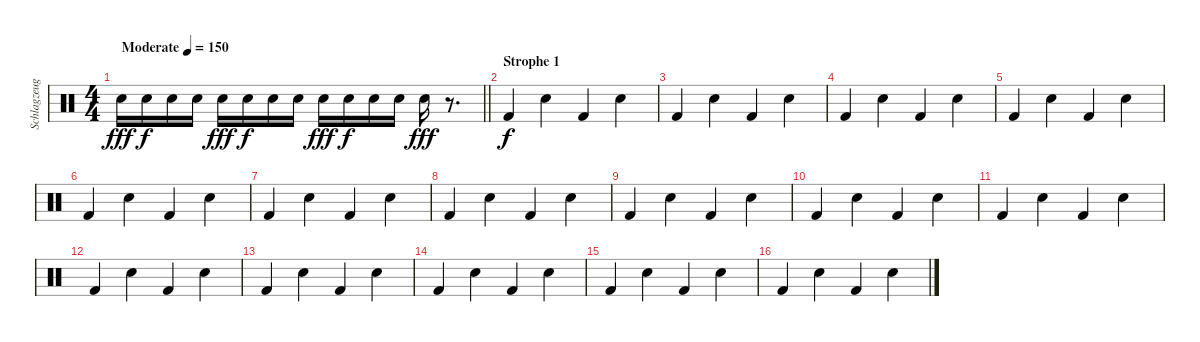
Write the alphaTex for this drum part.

\track ("Schlagzeug" "Schlagzeug") {instrument percussion}
\staff {score}
\articulation defaults
\ts (4 4)
\tempo (150 "Moderate")
\clef neutral
\barLineRight lightlight
\ks c "Electric Snare (hit)".16{dy fff} "Electric Snare (hit)".16{dy f} "Electric Snare (hit)".16 "Electric Snare (hit)".16 "Electric Snare (hit)".16{dy fff} "Electric Snare (hit)".16{dy f} "Electric Snare (hit)".16 "Electric Snare (hit)".16 "Electric Snare (hit)".16{dy fff} "Electric Snare (hit)".16{dy f} "Electric Snare (hit)".16 "Electric Snare (hit)".16 "Electric Snare (hit)".16{dy fff}
r.8{d} |
\section ("" "Strophe 1")
"Kick (hit) 2".4{dy f} "Electric Snare (hit)".4 "Kick (hit) 2".4 "Electric Snare (hit)".4 |
"Kick (hit) 2".4 "Electric Snare (hit)".4 "Kick (hit) 2".4 "Electric Snare (hit)".4 |
"Kick (hit) 2".4 "Electric Snare (hit)".4 "Kick (hit) 2".4 "Electric Snare (hit)".4 |
"Kick (hit) 2".4 "Electric Snare (hit)".4 "Kick (hit) 2".4 "Electric Snare (hit)".4 |
"Kick (hit) 2".4 "Electric Snare (hit)".4 "Kick (hit) 2".4 "Electric Snare (hit)".4 |
"Kick (hit) 2".4 "Electric Snare (hit)".4 "Kick (hit) 2".4 "Electric Snare (hit)".4 |
"Kick (hit) 2".4 "Electric Snare (hit)".4 "Kick (hit) 2".4 "Electric Snare (hit)".4 |
"Kick (hit) 2".4 "Electric Snare (hit)".4 "Kick (hit) 2".4 "Electric Snare (hit)".4 |
"Kick (hit) 2".4 "Electric Snare (hit)".4 "Kick (hit) 2".4 "Electric Snare (hit)".4 |
"Kick (hit) 2".4 "Electric Snare (hit)".4 "Kick (hit) 2".4 "Electric Snare (hit)".4 |
"Kick (hit) 2".4 "Electric Snare (hit)".4 "Kick (hit) 2".4 "Electric Snare (hit)".4 |
"Kick (hit) 2".4 "Electric Snare (hit)".4 "Kick (hit) 2".4 "Electric Snare (hit)".4 |
"Kick (hit) 2".4 "Electric Snare (hit)".4 "Kick (hit) 2".4 "Electric Snare (hit)".4 |
"Kick (hit) 2".4 "Electric Snare (hit)".4 "Kick (hit) 2".4 "Electric Snare (hit)".4 |
"Kick (hit) 2".4 "Electric Snare (hit)".4 "Kick (hit) 2".4 "Electric Snare (hit)".4
